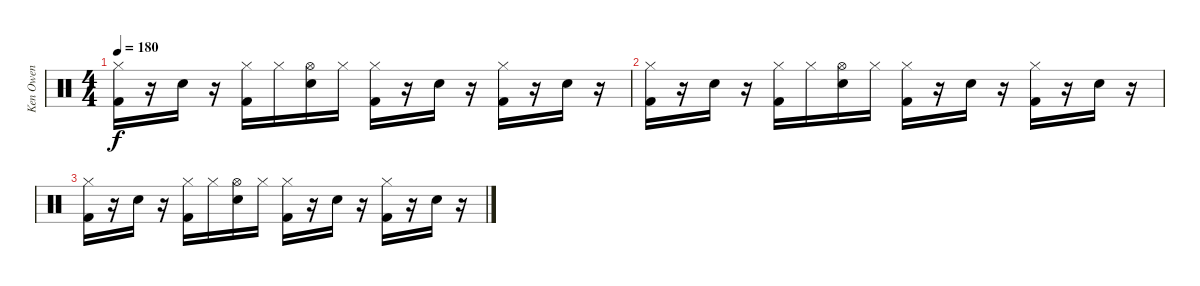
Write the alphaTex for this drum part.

\track ("Ken Owen" "Ken Owen") {instrument percussion}
\staff {score}
\articulation defaults
\ts (4 4)
\tempo 180
\clef neutral
\ks c
("Hi-Hat (closed)" "Kick (hit) 2").16{dy f} r.16 "Snare (hit) 2".16 r.16 ("Hi-Hat (closed)" "Kick (hit) 2").16 "Hi-Hat (closed)".16 ("Hi-Hat (open)" "Snare (hit) 2").16 "Hi-Hat (closed)".16 ("Hi-Hat (closed)" "Kick (hit) 2").16 r.16 "Snare (hit) 2".16 r.16 ("Hi-Hat (closed)" "Kick (hit) 2").16 r.16 "Snare (hit) 2".16 r.16 |
("Hi-Hat (closed)" "Kick (hit) 2").16 r.16 "Snare (hit) 2".16 r.16 ("Hi-Hat (closed)" "Kick (hit) 2").16 "Hi-Hat (closed)".16 ("Hi-Hat (open)" "Snare (hit) 2").16 "Hi-Hat (closed)".16 ("Hi-Hat (closed)" "Kick (hit) 2").16 r.16 "Snare (hit) 2".16 r.16 ("Hi-Hat (closed)" "Kick (hit) 2").16 r.16 "Snare (hit) 2".16 r.16 |
("Hi-Hat (closed)" "Kick (hit) 2").16 r.16 "Snare (hit) 2".16 r.16 ("Hi-Hat (closed)" "Kick (hit) 2").16 "Hi-Hat (closed)".16 ("Hi-Hat (open)" "Snare (hit) 2").16 "Hi-Hat (closed)".16 ("Hi-Hat (closed)" "Kick (hit) 2").16 r.16 "Snare (hit) 2".16 r.16 ("Hi-Hat (closed)" "Kick (hit) 2").16 r.16 "Snare (hit) 2".16 r.16
